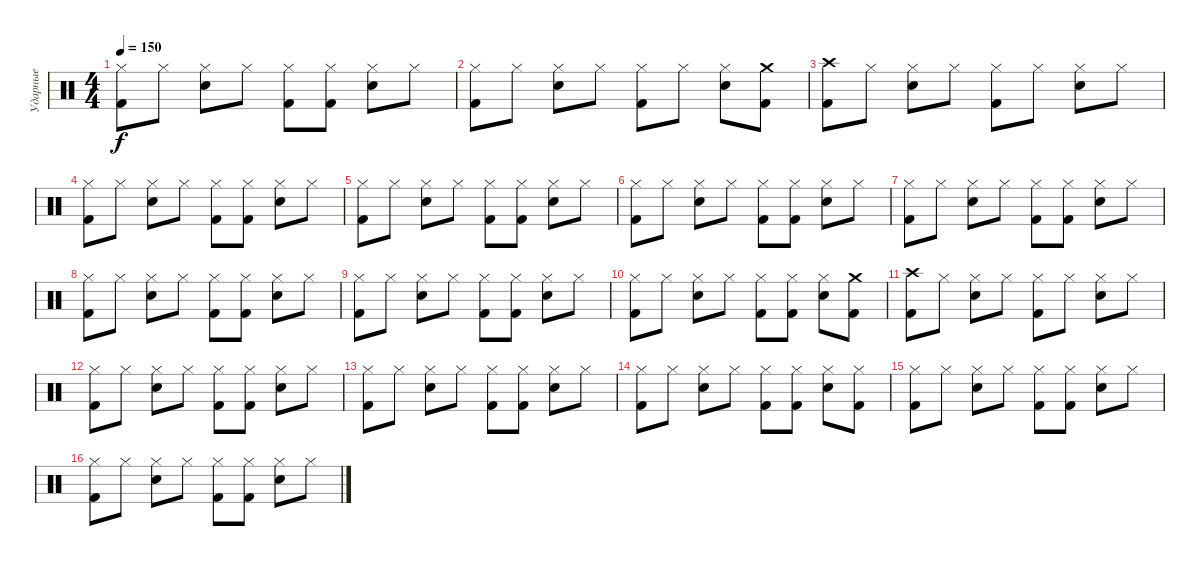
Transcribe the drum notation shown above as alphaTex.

\track ("Ударные" "Ударные") {instrument percussion}
\staff {score}
\articulation defaults
\ts (4 4)
\tempo 150
\clef neutral
\ks c
("Hi-Hat (closed)" "Kick (hit) 2").8{dy f} "Hi-Hat (closed)".8 ("Hi-Hat (closed)" "Snare (hit) 2").8 "Hi-Hat (closed)".8 ("Hi-Hat (closed)" "Kick (hit) 2").8 ("Hi-Hat (closed)" "Kick (hit) 2").8 ("Hi-Hat (closed)" "Snare (hit) 2").8 "Hi-Hat (closed)".8 |
("Hi-Hat (closed)" "Kick (hit) 2").8 "Hi-Hat (closed)".8 ("Hi-Hat (closed)" "Snare (hit) 2").8 "Hi-Hat (closed)".8 ("Hi-Hat (closed)" "Kick (hit) 2").8 "Hi-Hat (closed)".8 ("Hi-Hat (closed)" "Snare (hit) 2").8 ("Crash medium (hit)" "Kick (hit) 2").8 |
("Crash high (hit)" "Kick (hit) 2").8 "Hi-Hat (closed)".8 ("Hi-Hat (closed)" "Snare (hit) 2").8 "Hi-Hat (closed)".8 ("Hi-Hat (closed)" "Kick (hit) 2").8 "Hi-Hat (closed)".8 ("Hi-Hat (closed)" "Snare (hit) 2").8 "Hi-Hat (closed)".8 |
("Hi-Hat (closed)" "Kick (hit) 2").8 "Hi-Hat (closed)".8 ("Hi-Hat (closed)" "Snare (hit) 2").8 "Hi-Hat (closed)".8 ("Hi-Hat (closed)" "Kick (hit) 2").8 ("Hi-Hat (closed)" "Kick (hit) 2").8 ("Hi-Hat (closed)" "Snare (hit) 2").8 "Hi-Hat (closed)".8 |
("Hi-Hat (closed)" "Kick (hit) 2").8 "Hi-Hat (closed)".8 ("Hi-Hat (closed)" "Snare (hit) 2").8 "Hi-Hat (closed)".8 ("Hi-Hat (closed)" "Kick (hit) 2").8 ("Hi-Hat (closed)" "Kick (hit) 2").8 ("Hi-Hat (closed)" "Snare (hit) 2").8 "Hi-Hat (closed)".8 |
("Hi-Hat (closed)" "Kick (hit) 2").8 "Hi-Hat (closed)".8 ("Hi-Hat (closed)" "Snare (hit) 2").8 "Hi-Hat (closed)".8 ("Hi-Hat (closed)" "Kick (hit) 2").8 ("Hi-Hat (closed)" "Kick (hit) 2").8 ("Hi-Hat (closed)" "Snare (hit) 2").8 "Hi-Hat (closed)".8 |
("Hi-Hat (closed)" "Kick (hit) 2").8 "Hi-Hat (closed)".8 ("Hi-Hat (closed)" "Snare (hit) 2").8 "Hi-Hat (closed)".8 ("Hi-Hat (closed)" "Kick (hit) 2").8 ("Hi-Hat (closed)" "Kick (hit) 2").8 ("Hi-Hat (closed)" "Snare (hit) 2").8 "Hi-Hat (closed)".8 |
("Hi-Hat (closed)" "Kick (hit) 2").8 "Hi-Hat (closed)".8 ("Hi-Hat (closed)" "Snare (hit) 2").8 "Hi-Hat (closed)".8 ("Hi-Hat (closed)" "Kick (hit) 2").8 ("Hi-Hat (closed)" "Kick (hit) 2").8 ("Hi-Hat (closed)" "Snare (hit) 2").8 "Hi-Hat (closed)".8 |
("Hi-Hat (closed)" "Kick (hit) 2").8 "Hi-Hat (closed)".8 ("Hi-Hat (closed)" "Snare (hit) 2").8 "Hi-Hat (closed)".8 ("Hi-Hat (closed)" "Kick (hit) 2").8 ("Hi-Hat (closed)" "Kick (hit) 2").8 ("Hi-Hat (closed)" "Snare (hit) 2").8 "Hi-Hat (closed)".8 |
("Hi-Hat (closed)" "Kick (hit) 2").8 "Hi-Hat (closed)".8 ("Hi-Hat (closed)" "Snare (hit) 2").8 "Hi-Hat (closed)".8 ("Hi-Hat (closed)" "Kick (hit) 2").8 ("Hi-Hat (closed)" "Kick (hit) 2").8 ("Hi-Hat (closed)" "Snare (hit) 2").8 ("Crash medium (hit)" "Kick (hit) 2").8 |
("Crash high (hit)" "Kick (hit) 2").8 "Hi-Hat (closed)".8 ("Hi-Hat (closed)" "Snare (hit) 2").8 "Hi-Hat (closed)".8 ("Hi-Hat (closed)" "Kick (hit) 2").8 "Hi-Hat (closed)".8 ("Hi-Hat (closed)" "Snare (hit) 2").8 "Hi-Hat (closed)".8 |
("Hi-Hat (closed)" "Kick (hit) 2").8 "Hi-Hat (closed)".8 ("Hi-Hat (closed)" "Snare (hit) 2").8 "Hi-Hat (closed)".8 ("Hi-Hat (closed)" "Kick (hit) 2").8 ("Hi-Hat (closed)" "Kick (hit) 2").8 ("Hi-Hat (closed)" "Snare (hit) 2").8 "Hi-Hat (closed)".8 |
("Hi-Hat (closed)" "Kick (hit) 2").8 "Hi-Hat (closed)".8 ("Hi-Hat (closed)" "Snare (hit) 2").8 "Hi-Hat (closed)".8 ("Hi-Hat (closed)" "Kick (hit) 2").8 ("Hi-Hat (closed)" "Kick (hit) 2").8 ("Hi-Hat (closed)" "Snare (hit) 2").8 "Hi-Hat (closed)".8 |
("Hi-Hat (closed)" "Kick (hit) 2").8 "Hi-Hat (closed)".8 ("Hi-Hat (closed)" "Snare (hit) 2").8 "Hi-Hat (closed)".8 ("Hi-Hat (closed)" "Kick (hit) 2").8 ("Hi-Hat (closed)" "Kick (hit) 2").8 ("Hi-Hat (closed)" "Snare (hit) 2").8 ("Hi-Hat (closed)" "Kick (hit) 2").8 |
("Hi-Hat (closed)" "Kick (hit) 2").8 "Hi-Hat (closed)".8 ("Hi-Hat (closed)" "Snare (hit) 2").8 "Hi-Hat (closed)".8 ("Hi-Hat (closed)" "Kick (hit) 2").8 ("Hi-Hat (closed)" "Kick (hit) 2").8 ("Hi-Hat (closed)" "Snare (hit) 2").8 "Hi-Hat (closed)".8 |
("Hi-Hat (closed)" "Kick (hit) 2").8 "Hi-Hat (closed)".8 ("Hi-Hat (closed)" "Snare (hit) 2").8 "Hi-Hat (closed)".8 ("Hi-Hat (closed)" "Kick (hit) 2").8 ("Hi-Hat (closed)" "Kick (hit) 2").8 ("Hi-Hat (closed)" "Snare (hit) 2").8 "Hi-Hat (closed)".8
